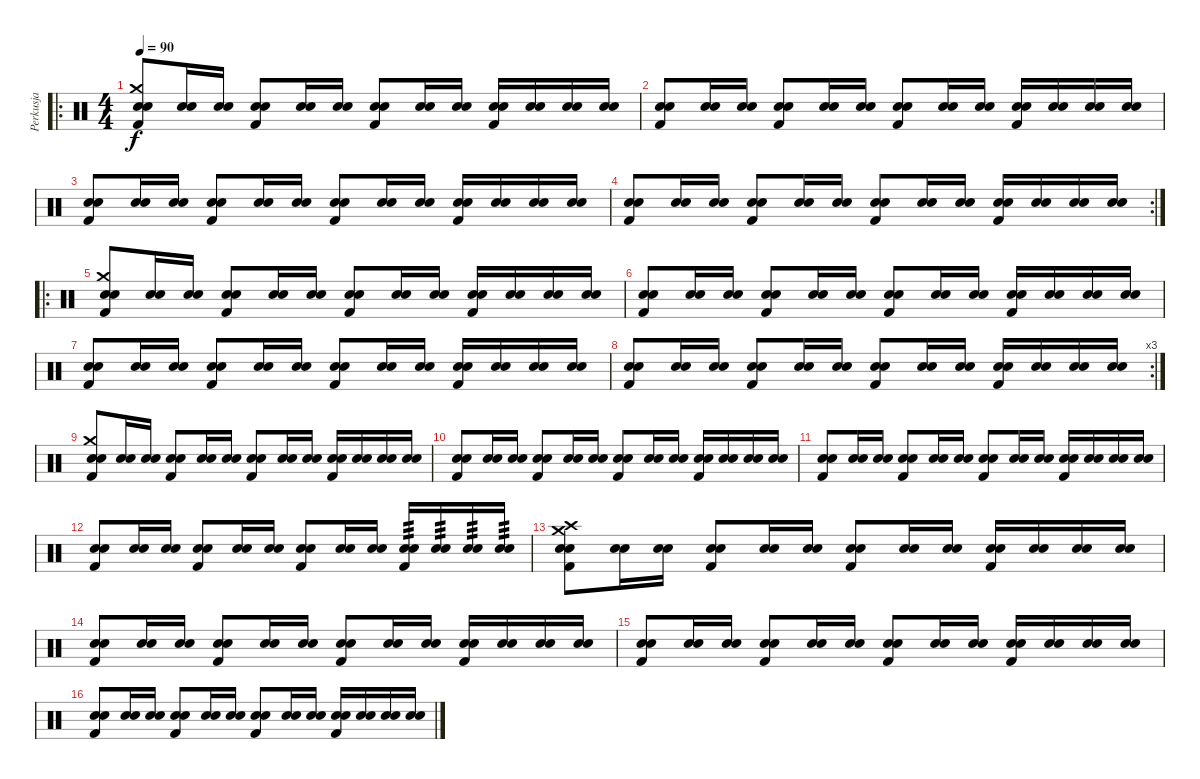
\track ("Perkusja" "Perkusja") {instrument percussion}
\staff {score}
\articulation defaults
\ro
\ts (4 4)
\tempo 90
\clef neutral
\ks c
("Kick (hit) 2" "Crash medium (hit)" "Snare (hit) 2" "Electric Snare (hit)").8{dy f} ("Snare (hit) 2" "Electric Snare (hit)").16 ("Snare (hit) 2" "Electric Snare (hit)").16 ("Kick (hit) 2" "Snare (hit) 2" "Electric Snare (hit)").8 ("Snare (hit) 2" "Electric Snare (hit)").16 ("Snare (hit) 2" "Electric Snare (hit)").16 ("Kick (hit) 2" "Snare (hit) 2" "Electric Snare (hit)").8 ("Snare (hit) 2" "Electric Snare (hit)").16 ("Snare (hit) 2" "Electric Snare (hit)").16 ("Kick (hit) 2" "Snare (hit) 2" "Electric Snare (hit)").16 ("Snare (hit) 2" "Electric Snare (hit)").16 ("Snare (hit) 2" "Electric Snare (hit)").16 ("Snare (hit) 2" "Electric Snare (hit)").16 |
("Kick (hit) 2" "Snare (hit) 2" "Electric Snare (hit)").8 ("Snare (hit) 2" "Electric Snare (hit)").16 ("Snare (hit) 2" "Electric Snare (hit)").16 ("Kick (hit) 2" "Snare (hit) 2" "Electric Snare (hit)").8 ("Snare (hit) 2" "Electric Snare (hit)").16 ("Snare (hit) 2" "Electric Snare (hit)").16 ("Kick (hit) 2" "Snare (hit) 2" "Electric Snare (hit)").8 ("Snare (hit) 2" "Electric Snare (hit)").16 ("Snare (hit) 2" "Electric Snare (hit)").16 ("Kick (hit) 2" "Snare (hit) 2" "Electric Snare (hit)").16 ("Snare (hit) 2" "Electric Snare (hit)").16 ("Snare (hit) 2" "Electric Snare (hit)").16 ("Snare (hit) 2" "Electric Snare (hit)").16 |
("Kick (hit) 2" "Snare (hit) 2" "Electric Snare (hit)").8 ("Snare (hit) 2" "Electric Snare (hit)").16 ("Snare (hit) 2" "Electric Snare (hit)").16 ("Kick (hit) 2" "Snare (hit) 2" "Electric Snare (hit)").8 ("Snare (hit) 2" "Electric Snare (hit)").16 ("Snare (hit) 2" "Electric Snare (hit)").16 ("Kick (hit) 2" "Snare (hit) 2" "Electric Snare (hit)").8 ("Snare (hit) 2" "Electric Snare (hit)").16 ("Snare (hit) 2" "Electric Snare (hit)").16 ("Kick (hit) 2" "Snare (hit) 2" "Electric Snare (hit)").16 ("Snare (hit) 2" "Electric Snare (hit)").16 ("Snare (hit) 2" "Electric Snare (hit)").16 ("Snare (hit) 2" "Electric Snare (hit)").16 |
\rc 2
("Kick (hit) 2" "Snare (hit) 2" "Electric Snare (hit)").8 ("Snare (hit) 2" "Electric Snare (hit)").16 ("Snare (hit) 2" "Electric Snare (hit)").16 ("Kick (hit) 2" "Snare (hit) 2" "Electric Snare (hit)").8 ("Snare (hit) 2" "Electric Snare (hit)").16 ("Snare (hit) 2" "Electric Snare (hit)").16 ("Kick (hit) 2" "Snare (hit) 2" "Electric Snare (hit)").8 ("Snare (hit) 2" "Electric Snare (hit)").16 ("Snare (hit) 2" "Electric Snare (hit)").16 ("Kick (hit) 2" "Snare (hit) 2" "Electric Snare (hit)").16 ("Snare (hit) 2" "Electric Snare (hit)").16 ("Snare (hit) 2" "Electric Snare (hit)").16 ("Snare (hit) 2" "Electric Snare (hit)").16 |
\ro
("Kick (hit) 2" "Crash medium (hit)" "Snare (hit) 2" "Electric Snare (hit)").8 ("Snare (hit) 2" "Electric Snare (hit)").16 ("Snare (hit) 2" "Electric Snare (hit)").16 ("Kick (hit) 2" "Snare (hit) 2" "Electric Snare (hit)").8 ("Snare (hit) 2" "Electric Snare (hit)").16 ("Snare (hit) 2" "Electric Snare (hit)").16 ("Kick (hit) 2" "Snare (hit) 2" "Electric Snare (hit)").8 ("Snare (hit) 2" "Electric Snare (hit)").16 ("Snare (hit) 2" "Electric Snare (hit)").16 ("Kick (hit) 2" "Snare (hit) 2" "Electric Snare (hit)").16 ("Snare (hit) 2" "Electric Snare (hit)").16 ("Snare (hit) 2" "Electric Snare (hit)").16 ("Snare (hit) 2" "Electric Snare (hit)").16 |
("Kick (hit) 2" "Snare (hit) 2" "Electric Snare (hit)").8 ("Snare (hit) 2" "Electric Snare (hit)").16 ("Snare (hit) 2" "Electric Snare (hit)").16 ("Kick (hit) 2" "Snare (hit) 2" "Electric Snare (hit)").8 ("Snare (hit) 2" "Electric Snare (hit)").16 ("Snare (hit) 2" "Electric Snare (hit)").16 ("Kick (hit) 2" "Snare (hit) 2" "Electric Snare (hit)").8 ("Snare (hit) 2" "Electric Snare (hit)").16 ("Snare (hit) 2" "Electric Snare (hit)").16 ("Kick (hit) 2" "Snare (hit) 2" "Electric Snare (hit)").16 ("Snare (hit) 2" "Electric Snare (hit)").16 ("Snare (hit) 2" "Electric Snare (hit)").16 ("Snare (hit) 2" "Electric Snare (hit)").16 |
("Kick (hit) 2" "Snare (hit) 2" "Electric Snare (hit)").8 ("Snare (hit) 2" "Electric Snare (hit)").16 ("Snare (hit) 2" "Electric Snare (hit)").16 ("Kick (hit) 2" "Snare (hit) 2" "Electric Snare (hit)").8 ("Snare (hit) 2" "Electric Snare (hit)").16 ("Snare (hit) 2" "Electric Snare (hit)").16 ("Kick (hit) 2" "Snare (hit) 2" "Electric Snare (hit)").8 ("Snare (hit) 2" "Electric Snare (hit)").16 ("Snare (hit) 2" "Electric Snare (hit)").16 ("Kick (hit) 2" "Snare (hit) 2" "Electric Snare (hit)").16 ("Snare (hit) 2" "Electric Snare (hit)").16 ("Snare (hit) 2" "Electric Snare (hit)").16 ("Snare (hit) 2" "Electric Snare (hit)").16 |
\rc 3
("Kick (hit) 2" "Snare (hit) 2" "Electric Snare (hit)").8 ("Snare (hit) 2" "Electric Snare (hit)").16 ("Snare (hit) 2" "Electric Snare (hit)").16 ("Kick (hit) 2" "Snare (hit) 2" "Electric Snare (hit)").8 ("Snare (hit) 2" "Electric Snare (hit)").16 ("Snare (hit) 2" "Electric Snare (hit)").16 ("Kick (hit) 2" "Snare (hit) 2" "Electric Snare (hit)").8 ("Snare (hit) 2" "Electric Snare (hit)").16 ("Snare (hit) 2" "Electric Snare (hit)").16 ("Kick (hit) 2" "Snare (hit) 2" "Electric Snare (hit)").16 ("Snare (hit) 2" "Electric Snare (hit)").16 ("Snare (hit) 2" "Electric Snare (hit)").16 ("Snare (hit) 2" "Electric Snare (hit)").16 |
("Kick (hit) 2" "Crash medium (hit)" "Snare (hit) 2" "Electric Snare (hit)").8 ("Snare (hit) 2" "Electric Snare (hit)").16 ("Snare (hit) 2" "Electric Snare (hit)").16 ("Kick (hit) 2" "Snare (hit) 2" "Electric Snare (hit)").8 ("Snare (hit) 2" "Electric Snare (hit)").16 ("Snare (hit) 2" "Electric Snare (hit)").16 ("Kick (hit) 2" "Snare (hit) 2" "Electric Snare (hit)").8 ("Snare (hit) 2" "Electric Snare (hit)").16 ("Snare (hit) 2" "Electric Snare (hit)").16 ("Kick (hit) 2" "Snare (hit) 2" "Electric Snare (hit)").16 ("Snare (hit) 2" "Electric Snare (hit)").16 ("Snare (hit) 2" "Electric Snare (hit)").16 ("Snare (hit) 2" "Electric Snare (hit)").16 |
("Kick (hit) 2" "Snare (hit) 2" "Electric Snare (hit)").8 ("Snare (hit) 2" "Electric Snare (hit)").16 ("Snare (hit) 2" "Electric Snare (hit)").16 ("Kick (hit) 2" "Snare (hit) 2" "Electric Snare (hit)").8 ("Snare (hit) 2" "Electric Snare (hit)").16 ("Snare (hit) 2" "Electric Snare (hit)").16 ("Kick (hit) 2" "Snare (hit) 2" "Electric Snare (hit)").8 ("Snare (hit) 2" "Electric Snare (hit)").16 ("Snare (hit) 2" "Electric Snare (hit)").16 ("Kick (hit) 2" "Snare (hit) 2" "Electric Snare (hit)").16 ("Snare (hit) 2" "Electric Snare (hit)").16 ("Snare (hit) 2" "Electric Snare (hit)").16 ("Snare (hit) 2" "Electric Snare (hit)").16 |
("Kick (hit) 2" "Snare (hit) 2" "Electric Snare (hit)").8 ("Snare (hit) 2" "Electric Snare (hit)").16 ("Snare (hit) 2" "Electric Snare (hit)").16 ("Kick (hit) 2" "Snare (hit) 2" "Electric Snare (hit)").8 ("Snare (hit) 2" "Electric Snare (hit)").16 ("Snare (hit) 2" "Electric Snare (hit)").16 ("Kick (hit) 2" "Snare (hit) 2" "Electric Snare (hit)").8 ("Snare (hit) 2" "Electric Snare (hit)").16 ("Snare (hit) 2" "Electric Snare (hit)").16 ("Kick (hit) 2" "Snare (hit) 2" "Electric Snare (hit)").16 ("Snare (hit) 2" "Electric Snare (hit)").16 ("Snare (hit) 2" "Electric Snare (hit)").16 ("Snare (hit) 2" "Electric Snare (hit)").16 |
("Kick (hit) 2" "Snare (hit) 2" "Electric Snare (hit)").8 ("Snare (hit) 2" "Electric Snare (hit)").16 ("Snare (hit) 2" "Electric Snare (hit)").16 ("Kick (hit) 2" "Snare (hit) 2" "Electric Snare (hit)").8 ("Snare (hit) 2" "Electric Snare (hit)").16 ("Snare (hit) 2" "Electric Snare (hit)").16 ("Kick (hit) 2" "Snare (hit) 2" "Electric Snare (hit)").8 ("Snare (hit) 2" "Electric Snare (hit)").16 ("Snare (hit) 2" "Electric Snare (hit)").16 ("Kick (hit) 2" "Snare (hit) 2" "Electric Snare (hit)").16{tp 3} ("Snare (hit) 2" "Electric Snare (hit)").16{tp 3} ("Snare (hit) 2" "Electric Snare (hit)").16{tp 3} ("Snare (hit) 2" "Electric Snare (hit)").16{tp 3} |
("Crash high (hit)" "Kick (hit) 2" "Crash medium (hit)" "Snare (hit) 2" "Electric Snare (hit)").8 ("Snare (hit) 2" "Electric Snare (hit)").16 ("Snare (hit) 2" "Electric Snare (hit)").16 ("Kick (hit) 2" "Snare (hit) 2" "Electric Snare (hit)").8 ("Snare (hit) 2" "Electric Snare (hit)").16 ("Snare (hit) 2" "Electric Snare (hit)").16 ("Kick (hit) 2" "Snare (hit) 2" "Electric Snare (hit)").8 ("Snare (hit) 2" "Electric Snare (hit)").16 ("Snare (hit) 2" "Electric Snare (hit)").16 ("Kick (hit) 2" "Snare (hit) 2" "Electric Snare (hit)").16 ("Snare (hit) 2" "Electric Snare (hit)").16 ("Snare (hit) 2" "Electric Snare (hit)").16 ("Snare (hit) 2" "Electric Snare (hit)").16 |
("Kick (hit) 2" "Snare (hit) 2" "Electric Snare (hit)").8 ("Snare (hit) 2" "Electric Snare (hit)").16 ("Snare (hit) 2" "Electric Snare (hit)").16 ("Kick (hit) 2" "Snare (hit) 2" "Electric Snare (hit)").8 ("Snare (hit) 2" "Electric Snare (hit)").16 ("Snare (hit) 2" "Electric Snare (hit)").16 ("Kick (hit) 2" "Snare (hit) 2" "Electric Snare (hit)").8 ("Snare (hit) 2" "Electric Snare (hit)").16 ("Snare (hit) 2" "Electric Snare (hit)").16 ("Kick (hit) 2" "Snare (hit) 2" "Electric Snare (hit)").16 ("Snare (hit) 2" "Electric Snare (hit)").16 ("Snare (hit) 2" "Electric Snare (hit)").16 ("Snare (hit) 2" "Electric Snare (hit)").16 |
("Kick (hit) 2" "Snare (hit) 2" "Electric Snare (hit)").8 ("Snare (hit) 2" "Electric Snare (hit)").16 ("Snare (hit) 2" "Electric Snare (hit)").16 ("Kick (hit) 2" "Snare (hit) 2" "Electric Snare (hit)").8 ("Snare (hit) 2" "Electric Snare (hit)").16 ("Snare (hit) 2" "Electric Snare (hit)").16 ("Kick (hit) 2" "Snare (hit) 2" "Electric Snare (hit)").8 ("Snare (hit) 2" "Electric Snare (hit)").16 ("Snare (hit) 2" "Electric Snare (hit)").16 ("Kick (hit) 2" "Snare (hit) 2" "Electric Snare (hit)").16 ("Snare (hit) 2" "Electric Snare (hit)").16 ("Snare (hit) 2" "Electric Snare (hit)").16 ("Snare (hit) 2" "Electric Snare (hit)").16 |
("Kick (hit) 2" "Snare (hit) 2" "Electric Snare (hit)").8 ("Snare (hit) 2" "Electric Snare (hit)").16 ("Snare (hit) 2" "Electric Snare (hit)").16 ("Kick (hit) 2" "Snare (hit) 2" "Electric Snare (hit)").8 ("Snare (hit) 2" "Electric Snare (hit)").16 ("Snare (hit) 2" "Electric Snare (hit)").16 ("Kick (hit) 2" "Snare (hit) 2" "Electric Snare (hit)").8 ("Snare (hit) 2" "Electric Snare (hit)").16 ("Snare (hit) 2" "Electric Snare (hit)").16 ("Kick (hit) 2" "Snare (hit) 2" "Electric Snare (hit)").16 ("Snare (hit) 2" "Electric Snare (hit)").16 ("Snare (hit) 2" "Electric Snare (hit)").16 ("Snare (hit) 2" "Electric Snare (hit)").16
